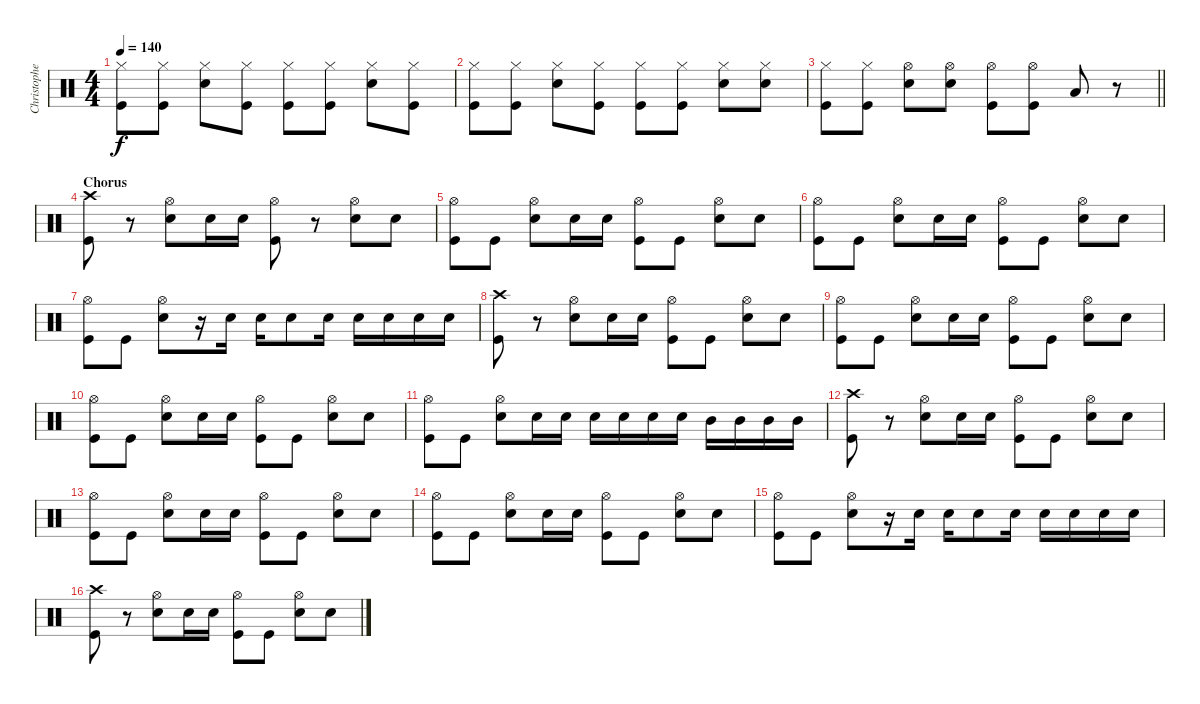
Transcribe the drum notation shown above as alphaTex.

\track ("Christopher - Drums" "Christophe") {instrument percussion}
\staff {score}
\articulation defaults
\ts (4 4)
\tempo 140
\clef neutral
\ks c
("Hi-Hat (closed)" "Kick (hit)").8{dy f} ("Hi-Hat (closed)" "Kick (hit)").8 ("Hi-Hat (closed)" "Snare (hit) 2").8 ("Hi-Hat (closed)" "Kick (hit)").8 ("Hi-Hat (closed)" "Kick (hit)").8 ("Hi-Hat (closed)" "Kick (hit)").8 ("Hi-Hat (closed)" "Snare (hit) 2").8 ("Hi-Hat (closed)" "Kick (hit)").8 |
("Hi-Hat (closed)" "Kick (hit)").8 ("Hi-Hat (closed)" "Kick (hit)").8 ("Hi-Hat (closed)" "Snare (hit) 2").8 ("Hi-Hat (closed)" "Kick (hit)").8 ("Hi-Hat (closed)" "Kick (hit)").8 ("Hi-Hat (closed)" "Kick (hit)").8 ("Hi-Hat (closed)" "Snare (hit) 2").8 ("Hi-Hat (closed)" "Snare (hit) 2").8 |
\barLineRight lightlight
("Hi-Hat (closed)" "Kick (hit)").8 ("Hi-Hat (closed)" "Kick (hit)").8 ("Hi-Hat (open)" "Snare (hit) 2").8 ("Hi-Hat (open)" "Snare (hit) 2").8 ("Hi-Hat (open)" "Kick (hit)").8 ("Hi-Hat (open)" "Kick (hit)").8 "Low Tom (hit)".8 r.8 |
\section ("" "Chorus")
("Crash high (hit)" "Kick (hit)").8 r.8 ("Hi-Hat (open)" "Snare (hit) 2").8 "Snare (hit) 2".16 "Snare (hit) 2".16 ("Hi-Hat (open)" "Kick (hit)").8 r.8 ("Hi-Hat (open)" "Snare (hit) 2").8 "Snare (hit) 2".8 |
("Hi-Hat (open)" "Kick (hit)").8 "Kick (hit)".8 ("Hi-Hat (open)" "Snare (hit) 2").8 "Snare (hit) 2".16 "Snare (hit) 2".16 ("Hi-Hat (open)" "Kick (hit)").8 "Kick (hit)".8 ("Hi-Hat (open)" "Snare (hit) 2").8 "Snare (hit) 2".8 |
("Hi-Hat (open)" "Kick (hit)").8 "Kick (hit)".8 ("Hi-Hat (open)" "Snare (hit) 2").8 "Snare (hit) 2".16 "Snare (hit) 2".16 ("Hi-Hat (open)" "Kick (hit)").8 "Kick (hit)".8 ("Hi-Hat (open)" "Snare (hit) 2").8 "Snare (hit) 2".8 |
("Hi-Hat (open)" "Kick (hit)").8 "Kick (hit)".8 ("Hi-Hat (open)" "Snare (hit) 2").8 r.16 "Snare (hit) 2".16 "Snare (hit) 2".16 "Snare (hit) 2".8 "Snare (hit) 2".16 "Snare (hit) 2".16 "Snare (hit) 2".16 "Snare (hit) 2".16 "Snare (hit) 2".16 |
("Crash high (hit)" "Kick (hit)").8 r.8 ("Hi-Hat (open)" "Snare (hit) 2").8 "Snare (hit) 2".16 "Snare (hit) 2".16 ("Hi-Hat (open)" "Kick (hit)").8 "Kick (hit)".8 ("Hi-Hat (open)" "Snare (hit) 2").8 "Snare (hit) 2".8 |
("Hi-Hat (open)" "Kick (hit)").8 "Kick (hit)".8 ("Hi-Hat (open)" "Snare (hit) 2").8 "Snare (hit) 2".16 "Snare (hit) 2".16 ("Hi-Hat (open)" "Kick (hit)").8 "Kick (hit)".8 ("Hi-Hat (open)" "Snare (hit) 2").8 "Snare (hit) 2".8 |
("Hi-Hat (open)" "Kick (hit)").8 "Kick (hit)".8 ("Hi-Hat (open)" "Snare (hit) 2").8 "Snare (hit) 2".16 "Snare (hit) 2".16 ("Hi-Hat (open)" "Kick (hit)").8 "Kick (hit)".8 ("Hi-Hat (open)" "Snare (hit) 2").8 "Snare (hit) 2".8 |
("Hi-Hat (open)" "Kick (hit)").8 "Kick (hit)".8 ("Hi-Hat (open)" "Snare (hit) 2").8 "Snare (hit) 2".16 "Snare (hit) 2".16 "Snare (hit) 2".16 "Snare (hit) 2".16 "Snare (hit) 2".16 "Snare (hit) 2".16 "Mid Tom (hit)".16 "Mid Tom (hit)".16 "Mid Tom (hit)".16 "Mid Tom (hit)".16 |
("Crash high (hit)" "Kick (hit)").8 r.8 ("Hi-Hat (open)" "Snare (hit) 2").8 "Snare (hit) 2".16 "Snare (hit) 2".16 ("Hi-Hat (open)" "Kick (hit)").8 "Kick (hit)".8 ("Hi-Hat (open)" "Snare (hit) 2").8 "Snare (hit) 2".8 |
("Hi-Hat (open)" "Kick (hit)").8 "Kick (hit)".8 ("Hi-Hat (open)" "Snare (hit) 2").8 "Snare (hit) 2".16 "Snare (hit) 2".16 ("Hi-Hat (open)" "Kick (hit)").8 "Kick (hit)".8 ("Hi-Hat (open)" "Snare (hit) 2").8 "Snare (hit) 2".8 |
("Hi-Hat (open)" "Kick (hit)").8 "Kick (hit)".8 ("Hi-Hat (open)" "Snare (hit) 2").8 "Snare (hit) 2".16 "Snare (hit) 2".16 ("Hi-Hat (open)" "Kick (hit)").8 "Kick (hit)".8 ("Hi-Hat (open)" "Snare (hit) 2").8 "Snare (hit) 2".8 |
("Hi-Hat (open)" "Kick (hit)").8 "Kick (hit)".8 ("Hi-Hat (open)" "Snare (hit) 2").8 r.16 "Snare (hit) 2".16 "Snare (hit) 2".16 "Snare (hit) 2".8 "Snare (hit) 2".16 "Snare (hit) 2".16 "Snare (hit) 2".16 "Snare (hit) 2".16 "Snare (hit) 2".16 |
("Crash high (hit)" "Kick (hit)").8 r.8 ("Hi-Hat (open)" "Snare (hit) 2").8 "Snare (hit) 2".16 "Snare (hit) 2".16 ("Hi-Hat (open)" "Kick (hit)").8 "Kick (hit)".8 ("Hi-Hat (open)" "Snare (hit) 2").8 "Snare (hit) 2".8
